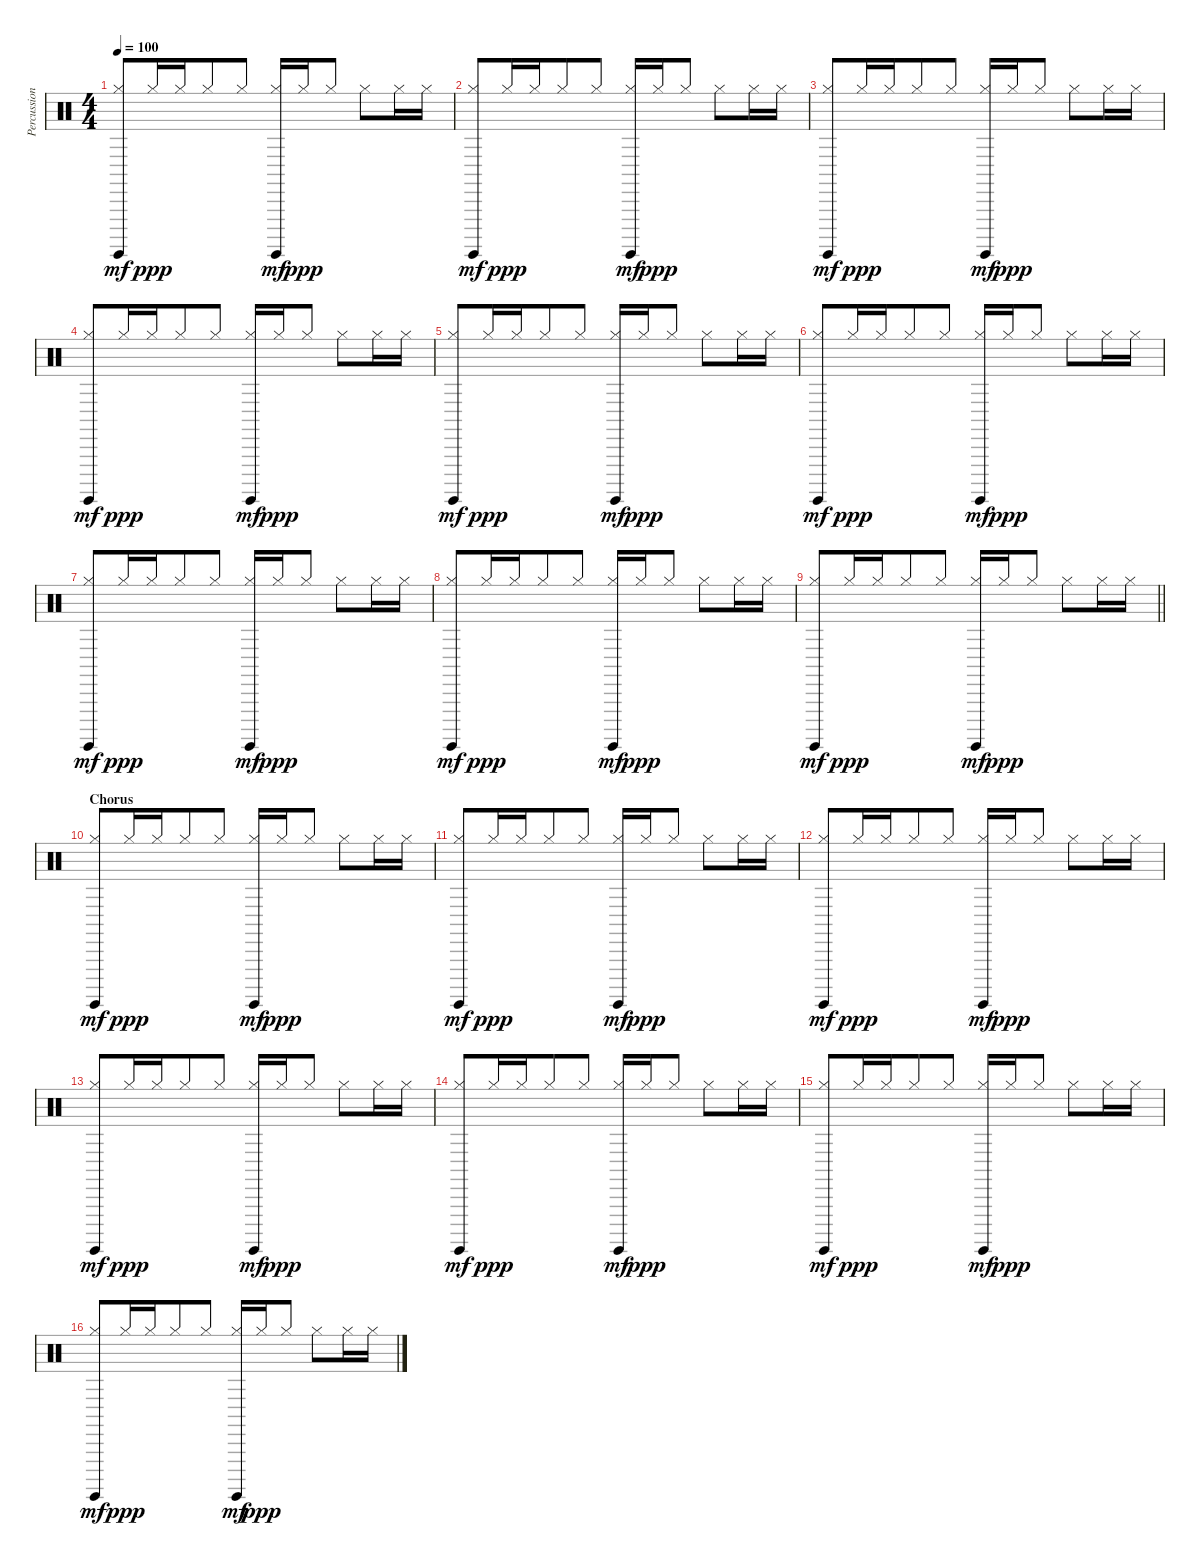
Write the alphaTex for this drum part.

\track ("Percussion" "Percussion") {instrument percussion}
\staff {score}
\articulation defaults
\ts (4 4)
\tempo 100
\clef neutral
\ks c
("Hi-Hat (closed)" "Surdo (hit)").8{dy mf} "Hi-Hat (closed)".16{dy ppp} "Hi-Hat (closed)".16{beam merge} "Hi-Hat (closed)".8 "Hi-Hat (closed)".8 ("Hi-Hat (closed)" "Surdo (hit)").16{dy mf} "Hi-Hat (closed)".16{dy ppp beam merge} "Hi-Hat (closed)".8 "Hi-Hat (closed)".8 "Hi-Hat (closed)".16 "Hi-Hat (closed)".16 |
("Hi-Hat (closed)" "Surdo (hit)").8{dy mf} "Hi-Hat (closed)".16{dy ppp} "Hi-Hat (closed)".16{beam merge} "Hi-Hat (closed)".8 "Hi-Hat (closed)".8 ("Hi-Hat (closed)" "Surdo (hit)").16{dy mf} "Hi-Hat (closed)".16{dy ppp beam merge} "Hi-Hat (closed)".8 "Hi-Hat (closed)".8 "Hi-Hat (closed)".16 "Hi-Hat (closed)".16 |
("Hi-Hat (closed)" "Surdo (hit)").8{dy mf} "Hi-Hat (closed)".16{dy ppp} "Hi-Hat (closed)".16{beam merge} "Hi-Hat (closed)".8 "Hi-Hat (closed)".8 ("Hi-Hat (closed)" "Surdo (hit)").16{dy mf} "Hi-Hat (closed)".16{dy ppp beam merge} "Hi-Hat (closed)".8 "Hi-Hat (closed)".8 "Hi-Hat (closed)".16 "Hi-Hat (closed)".16 |
("Hi-Hat (closed)" "Surdo (hit)").8{dy mf} "Hi-Hat (closed)".16{dy ppp} "Hi-Hat (closed)".16{beam merge} "Hi-Hat (closed)".8 "Hi-Hat (closed)".8 ("Hi-Hat (closed)" "Surdo (hit)").16{dy mf} "Hi-Hat (closed)".16{dy ppp beam merge} "Hi-Hat (closed)".8 "Hi-Hat (closed)".8 "Hi-Hat (closed)".16 "Hi-Hat (closed)".16 |
("Hi-Hat (closed)" "Surdo (hit)").8{dy mf} "Hi-Hat (closed)".16{dy ppp} "Hi-Hat (closed)".16{beam merge} "Hi-Hat (closed)".8 "Hi-Hat (closed)".8 ("Hi-Hat (closed)" "Surdo (hit)").16{dy mf} "Hi-Hat (closed)".16{dy ppp beam merge} "Hi-Hat (closed)".8 "Hi-Hat (closed)".8 "Hi-Hat (closed)".16 "Hi-Hat (closed)".16 |
("Hi-Hat (closed)" "Surdo (hit)").8{dy mf} "Hi-Hat (closed)".16{dy ppp} "Hi-Hat (closed)".16{beam merge} "Hi-Hat (closed)".8 "Hi-Hat (closed)".8 ("Hi-Hat (closed)" "Surdo (hit)").16{dy mf} "Hi-Hat (closed)".16{dy ppp beam merge} "Hi-Hat (closed)".8 "Hi-Hat (closed)".8 "Hi-Hat (closed)".16 "Hi-Hat (closed)".16 |
("Hi-Hat (closed)" "Surdo (hit)").8{dy mf} "Hi-Hat (closed)".16{dy ppp} "Hi-Hat (closed)".16{beam merge} "Hi-Hat (closed)".8 "Hi-Hat (closed)".8 ("Hi-Hat (closed)" "Surdo (hit)").16{dy mf} "Hi-Hat (closed)".16{dy ppp beam merge} "Hi-Hat (closed)".8 "Hi-Hat (closed)".8 "Hi-Hat (closed)".16 "Hi-Hat (closed)".16 |
("Hi-Hat (closed)" "Surdo (hit)").8{dy mf} "Hi-Hat (closed)".16{dy ppp} "Hi-Hat (closed)".16{beam merge} "Hi-Hat (closed)".8 "Hi-Hat (closed)".8 ("Hi-Hat (closed)" "Surdo (hit)").16{dy mf} "Hi-Hat (closed)".16{dy ppp beam merge} "Hi-Hat (closed)".8 "Hi-Hat (closed)".8 "Hi-Hat (closed)".16 "Hi-Hat (closed)".16 |
\barLineRight lightlight
("Hi-Hat (closed)" "Surdo (hit)").8{dy mf} "Hi-Hat (closed)".16{dy ppp} "Hi-Hat (closed)".16{beam merge} "Hi-Hat (closed)".8 "Hi-Hat (closed)".8 ("Hi-Hat (closed)" "Surdo (hit)").16{dy mf} "Hi-Hat (closed)".16{dy ppp beam merge} "Hi-Hat (closed)".8 "Hi-Hat (closed)".8 "Hi-Hat (closed)".16 "Hi-Hat (closed)".16 |
\section ("" "Chorus")
("Hi-Hat (closed)" "Surdo (hit)").8{dy mf} "Hi-Hat (closed)".16{dy ppp} "Hi-Hat (closed)".16{beam merge} "Hi-Hat (closed)".8 "Hi-Hat (closed)".8 ("Hi-Hat (closed)" "Surdo (hit)").16{dy mf} "Hi-Hat (closed)".16{dy ppp beam merge} "Hi-Hat (closed)".8 "Hi-Hat (closed)".8 "Hi-Hat (closed)".16 "Hi-Hat (closed)".16 |
("Hi-Hat (closed)" "Surdo (hit)").8{dy mf} "Hi-Hat (closed)".16{dy ppp} "Hi-Hat (closed)".16{beam merge} "Hi-Hat (closed)".8 "Hi-Hat (closed)".8 ("Hi-Hat (closed)" "Surdo (hit)").16{dy mf} "Hi-Hat (closed)".16{dy ppp beam merge} "Hi-Hat (closed)".8 "Hi-Hat (closed)".8 "Hi-Hat (closed)".16 "Hi-Hat (closed)".16 |
("Hi-Hat (closed)" "Surdo (hit)").8{dy mf} "Hi-Hat (closed)".16{dy ppp} "Hi-Hat (closed)".16{beam merge} "Hi-Hat (closed)".8 "Hi-Hat (closed)".8 ("Hi-Hat (closed)" "Surdo (hit)").16{dy mf} "Hi-Hat (closed)".16{dy ppp beam merge} "Hi-Hat (closed)".8 "Hi-Hat (closed)".8 "Hi-Hat (closed)".16 "Hi-Hat (closed)".16 |
("Hi-Hat (closed)" "Surdo (hit)").8{dy mf} "Hi-Hat (closed)".16{dy ppp} "Hi-Hat (closed)".16{beam merge} "Hi-Hat (closed)".8 "Hi-Hat (closed)".8 ("Hi-Hat (closed)" "Surdo (hit)").16{dy mf} "Hi-Hat (closed)".16{dy ppp beam merge} "Hi-Hat (closed)".8 "Hi-Hat (closed)".8 "Hi-Hat (closed)".16 "Hi-Hat (closed)".16 |
("Hi-Hat (closed)" "Surdo (hit)").8{dy mf} "Hi-Hat (closed)".16{dy ppp} "Hi-Hat (closed)".16{beam merge} "Hi-Hat (closed)".8 "Hi-Hat (closed)".8 ("Hi-Hat (closed)" "Surdo (hit)").16{dy mf} "Hi-Hat (closed)".16{dy ppp beam merge} "Hi-Hat (closed)".8 "Hi-Hat (closed)".8 "Hi-Hat (closed)".16 "Hi-Hat (closed)".16 |
("Hi-Hat (closed)" "Surdo (hit)").8{dy mf} "Hi-Hat (closed)".16{dy ppp} "Hi-Hat (closed)".16{beam merge} "Hi-Hat (closed)".8 "Hi-Hat (closed)".8 ("Hi-Hat (closed)" "Surdo (hit)").16{dy mf} "Hi-Hat (closed)".16{dy ppp beam merge} "Hi-Hat (closed)".8 "Hi-Hat (closed)".8 "Hi-Hat (closed)".16 "Hi-Hat (closed)".16 |
("Hi-Hat (closed)" "Surdo (hit)").8{dy mf} "Hi-Hat (closed)".16{dy ppp} "Hi-Hat (closed)".16{beam merge} "Hi-Hat (closed)".8 "Hi-Hat (closed)".8 ("Hi-Hat (closed)" "Surdo (hit)").16{dy mf} "Hi-Hat (closed)".16{dy ppp beam merge} "Hi-Hat (closed)".8 "Hi-Hat (closed)".8 "Hi-Hat (closed)".16 "Hi-Hat (closed)".16
